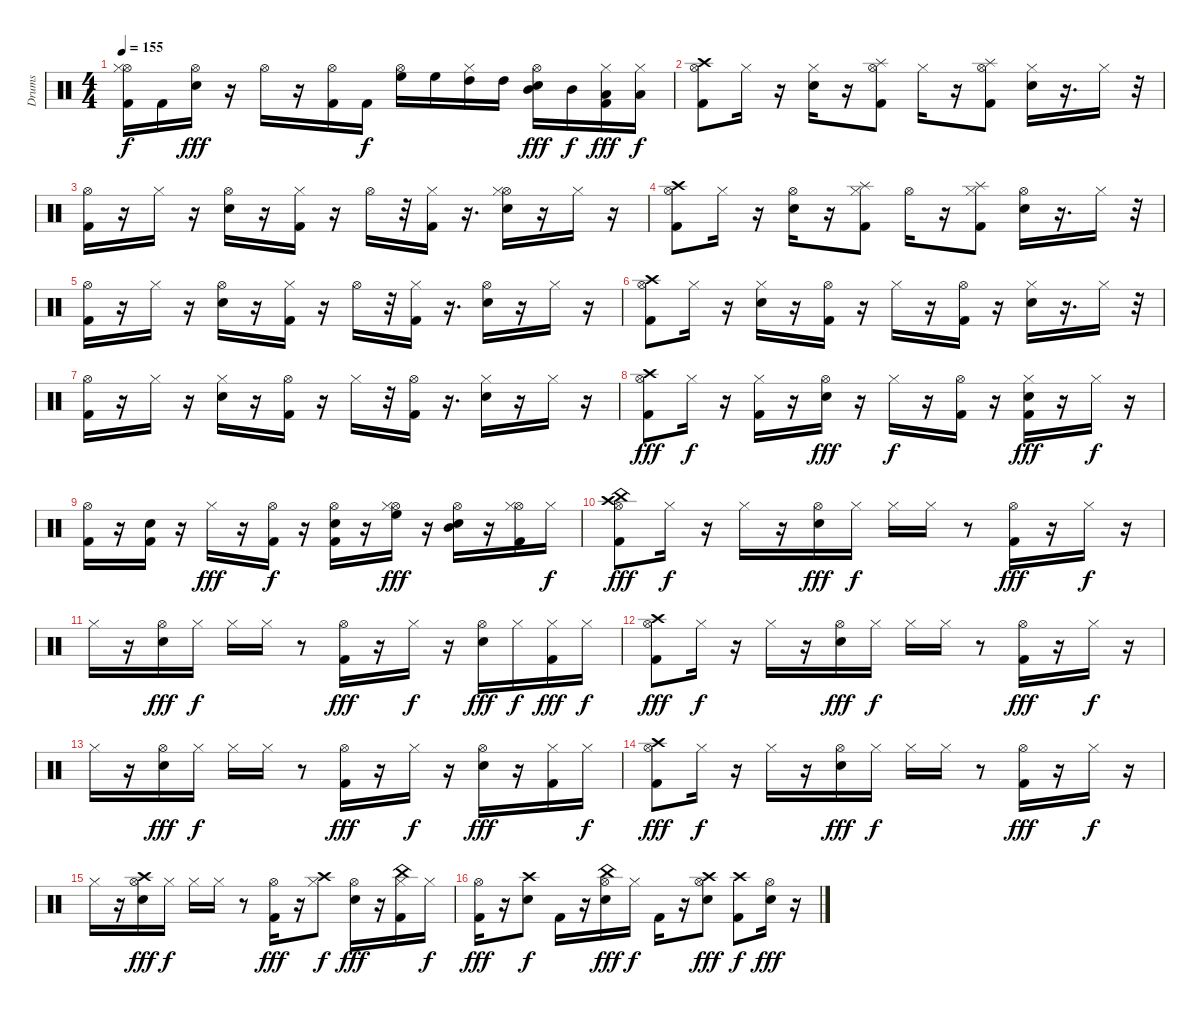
\track ("Drums" "Drums") {instrument percussion}
\staff {score}
\articulation defaults
\ts (4 4)
\tempo 155
\clef neutral
\ks c
("Hi-Hat (open)" "Kick (hit) 2" "Hi-Hat (closed)").16{dy f} "Kick (hit) 2".16 ("Electric Snare (hit)" "Hi-Hat (open)").16{dy fff} r.16 "Hi-Hat (open)".16 r.16 ("Kick (hit) 2" "Hi-Hat (open)").16 "Kick (hit) 2".16{dy f} ("High Floor Tom (hit)" "Hi-Hat (open)").16 "High Floor Tom (hit)".16 ("High Tom (hit)" "Hi-Hat (closed)").16 "High Tom (hit)".16 ("Mid Tom (hit)" "Hi-Hat (open)" "Electric Snare (hit)").16{dy fff} "Mid Tom (hit)".16{dy f} ("Low Tom (hit)" "Hi-Hat (closed)" "Kick (hit) 2").16{dy fff} ("Low Tom (hit)" "Hi-Hat (closed)").16{dy f} |
("Crash high (hit)" "Hi-Hat (open)" "Kick (hit) 2").8 "Hi-Hat (closed)".16 r.16 ("Hi-Hat (closed)" "Electric Snare (hit)").16 r.16 ("Splash (hit)" "Hi-Hat (open)" "Kick (hit) 2").8 "Hi-Hat (closed)".16 r.16 ("Splash (hit)" "Hi-Hat (open)" "Kick (hit) 2").8 ("Hi-Hat (closed)" "Electric Snare (hit)").16 r.16{d} "Hi-Hat (closed)".16 r.32 |
("Kick (hit) 2" "Hi-Hat (open)").16 r.16 "Hi-Hat (closed)".16 r.16 ("Hi-Hat (open)" "Electric Snare (hit)").16 r.16 ("Hi-Hat (closed)" "Kick (hit) 2").16 r.16 "Hi-Hat (open)".16 r.32 ("Hi-Hat (closed)" "Kick (hit) 2").16 r.16{d} ("Hi-Hat (open)" "Hi-Hat (closed)" "Electric Snare (hit)").16 r.16 "Hi-Hat (closed)".16 r.16 |
("Crash high (hit)" "Hi-Hat (open)" "Kick (hit) 2").8 "Hi-Hat (closed)".16 r.16 ("Hi-Hat (open)" "Electric Snare (hit)").16 r.16 ("Hi-Hat (closed)" "Splash (hit)" "Kick (hit) 2").8 "Hi-Hat (open)".16 r.16 ("Hi-Hat (closed)" "Splash (hit)" "Kick (hit) 2").8 ("Hi-Hat (open)" "Electric Snare (hit)").16 r.16{d} "Hi-Hat (closed)".16 r.32 |
("Kick (hit) 2" "Hi-Hat (open)").16 r.16 "Hi-Hat (closed)".16 r.16 ("Hi-Hat (open)" "Electric Snare (hit)").16 r.16 ("Hi-Hat (closed)" "Kick (hit) 2").16 r.16 "Hi-Hat (open)".16 r.32 ("Hi-Hat (closed)" "Kick (hit) 2").16 r.16{d} ("Hi-Hat (open)" "Electric Snare (hit)").16 r.16 "Hi-Hat (closed)".16 r.16 |
("Crash high (hit)" "Hi-Hat (open)" "Kick (hit) 2").8 "Hi-Hat (closed)".16 r.16 ("Hi-Hat (closed)" "Electric Snare (hit)").16 r.16 ("Hi-Hat (open)" "Kick (hit) 2").16 r.16 "Hi-Hat (closed)".16 r.16 ("Hi-Hat (open)" "Kick (hit) 2").16 r.16 ("Hi-Hat (closed)" "Electric Snare (hit)").16 r.16{d} "Hi-Hat (closed)".16 r.32 |
("Kick (hit) 2" "Hi-Hat (open)").16 r.16 "Hi-Hat (closed)".16 r.16 ("Hi-Hat (closed)" "Electric Snare (hit)").16 r.16 ("Kick (hit) 2" "Hi-Hat (open)").16 r.16 "Hi-Hat (closed)".16 r.32 ("Kick (hit) 2" "Hi-Hat (open)").16 r.16{d} ("Hi-Hat (closed)" "Electric Snare (hit)").16 r.16 "Hi-Hat (closed)".16 r.16 |
("Crash high (hit)" "Kick (hit) 2" "Hi-Hat (open)").8{dy fff} "Hi-Hat (closed)".16{dy f} r.16 ("Kick (hit) 2" "Hi-Hat (closed)").16 r.16 ("Hi-Hat (open)" "Electric Snare (hit)").16{dy fff} r.16 "Hi-Hat (closed)".16{dy f} r.16 ("Kick (hit) 2" "Hi-Hat (open)").16 r.16 ("Kick (hit) 2" "Hi-Hat (closed)" "Electric Snare (hit)").16{dy fff} r.16 "Hi-Hat (closed)".16{dy f} r.16 |
("Kick (hit) 2" "Hi-Hat (open)").16 r.16 ("Kick (hit) 2" "Electric Snare (hit)").16 r.16 "Hi-Hat (closed)".16{dy fff} r.16 ("Kick (hit) 2" "Hi-Hat (open)").16{dy f} r.16 ("Kick (hit) 2" "Electric Snare (hit)" "Hi-Hat (open)").16 r.16 ("Hi-Hat (open)" "High Floor Tom (hit)" "Hi-Hat (closed)").16{dy fff} r.16 ("Mid Tom (hit)" "Hi-Hat (open)" "Electric Snare (hit)").16 r.16 ("Hi-Hat (open)" "Hi-Hat (closed)" "Kick (hit) 2").16 "Hi-Hat (closed)".16{dy f} |
("China (hit)" "Crash high (hit)" "Kick (hit) 2" "Hi-Hat (open)").8{dy fff} "Hi-Hat (closed)".16{dy f} r.16 "Hi-Hat (closed)".16 r.16 ("Hi-Hat (open)" "Electric Snare (hit)").16{dy fff} "Hi-Hat (closed)".16{dy f} "Hi-Hat (closed)".16 "Hi-Hat (closed)".16 r.8 ("Hi-Hat (open)" "Kick (hit) 2").16{dy fff} r.16 "Hi-Hat (closed)".16{dy f} r.16 |
"Hi-Hat (closed)".16 r.16 ("Hi-Hat (open)" "Electric Snare (hit)").16{dy fff} "Hi-Hat (closed)".16{dy f} "Hi-Hat (closed)".16 "Hi-Hat (closed)".16 r.8 ("Hi-Hat (open)" "Kick (hit) 2").16{dy fff} r.16 "Hi-Hat (closed)".16{dy f} r.16 ("Hi-Hat (open)" "Electric Snare (hit)").16{dy fff} "Hi-Hat (closed)".16{dy f} ("Hi-Hat (closed)" "Kick (hit) 2").16{dy fff} "Hi-Hat (closed)".16{dy f} |
("Crash high (hit)" "Kick (hit) 2" "Hi-Hat (open)").8{dy fff} "Hi-Hat (closed)".16{dy f} r.16 "Hi-Hat (closed)".16 r.16 ("Hi-Hat (open)" "Electric Snare (hit)").16{dy fff} "Hi-Hat (closed)".16{dy f} "Hi-Hat (closed)".16 "Hi-Hat (closed)".16 r.8 ("Hi-Hat (open)" "Kick (hit) 2").16{dy fff} r.16 "Hi-Hat (closed)".16{dy f} r.16 |
"Hi-Hat (closed)".16 r.16 ("Hi-Hat (open)" "Electric Snare (hit)").16{dy fff} "Hi-Hat (closed)".16{dy f} "Hi-Hat (closed)".16 "Hi-Hat (closed)".16 r.8 ("Hi-Hat (open)" "Kick (hit) 2").16{dy fff} r.16 "Hi-Hat (closed)".16{dy f} r.16 ("Hi-Hat (open)" "Electric Snare (hit)").16{dy fff} r.16 ("Hi-Hat (closed)" "Kick (hit) 2").16 "Hi-Hat (closed)".16{dy f} |
("Crash high (hit)" "Kick (hit) 2" "Hi-Hat (open)").8{dy fff} "Hi-Hat (closed)".16{dy f} r.16 "Hi-Hat (closed)".16 r.16 ("Hi-Hat (open)" "Electric Snare (hit)").16{dy fff} "Hi-Hat (closed)".16{dy f} "Hi-Hat (closed)".16 "Hi-Hat (closed)".16 r.8 ("Hi-Hat (open)" "Kick (hit) 2").16{dy fff} r.16 "Hi-Hat (closed)".16{dy f} r.16 |
"Hi-Hat (closed)".16 r.16 ("Crash high (hit)" "Hi-Hat (open)" "Electric Snare (hit)").16{dy fff} "Hi-Hat (closed)".16{dy f} "Hi-Hat (closed)".16 "Hi-Hat (closed)".16 r.8 ("Hi-Hat (open)" "Kick (hit) 2").16{dy fff} r.16 ("Crash high (hit)" "Hi-Hat (closed)").8{dy f} ("Hi-Hat (open)" "Electric Snare (hit)").16{dy fff} r.16 ("China (hit)" "Hi-Hat (closed)" "Kick (hit) 2").16 "Hi-Hat (closed)".16{dy f} |
("Kick (hit) 2" "Hi-Hat (open)").16{dy fff} r.16 ("Electric Snare (hit)" "Crash high (hit)").8{dy f} "Kick (hit) 2".16 r.16 ("Electric Snare (hit)" "China (hit)" "Hi-Hat (open)").16{dy fff} "Hi-Hat (closed)".16{dy f} "Kick (hit) 2".16 r.16 ("Electric Snare (hit)" "Crash high (hit)" "Hi-Hat (open)").8{dy fff} ("Crash high (hit)" "Kick (hit) 2").8{dy f} ("Electric Snare (hit)" "Hi-Hat (open)").16{dy fff} r.16
